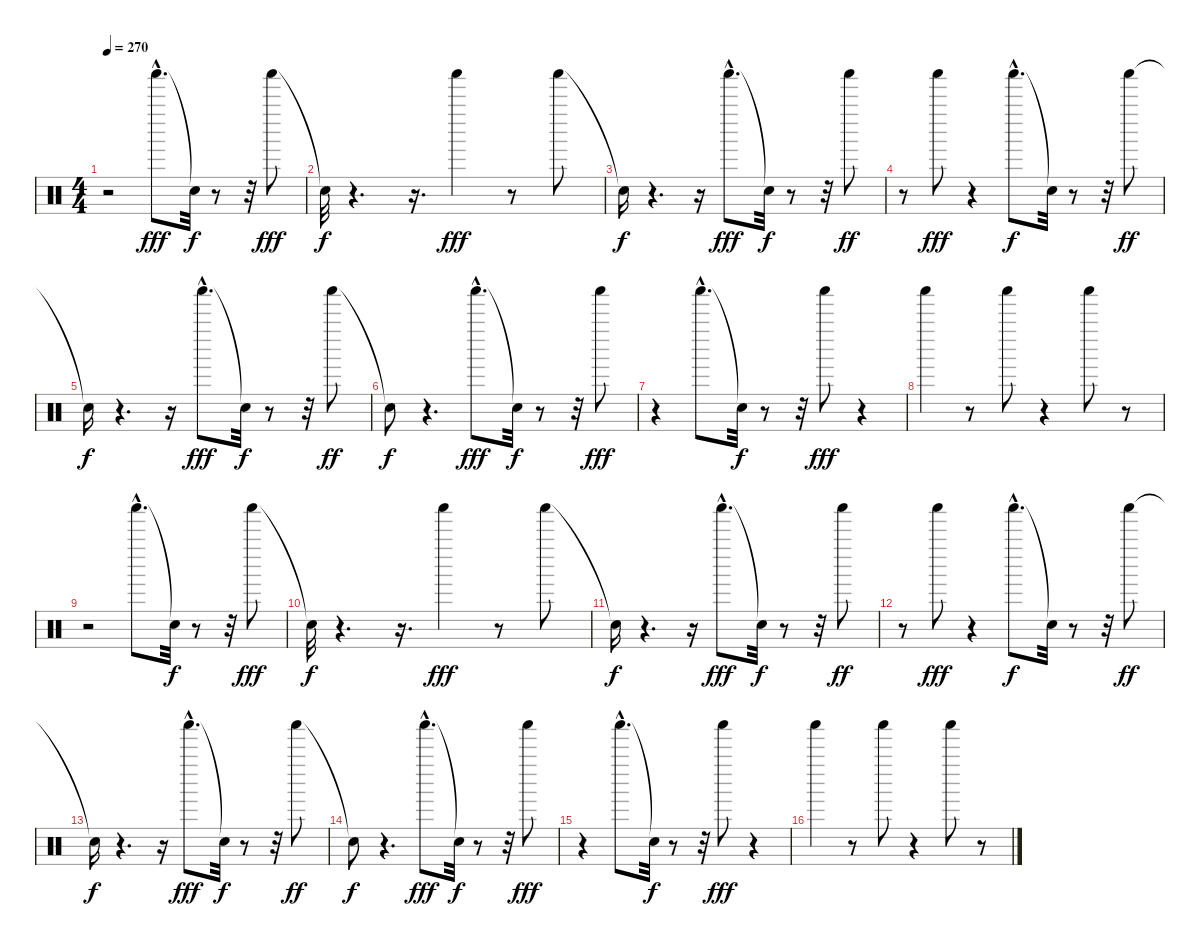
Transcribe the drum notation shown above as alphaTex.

\track "" {instrument percussion}
\staff {score}
\articulation defaults
\ts (4 4)
\tempo 270
\clef neutral
\ks c
r.2{dy fff} "Shaker (hit)"{hac}.8{d} "Snare (hit)"{t}.32{dy f} r.8 r.32 "Shaker (hit)".8{dy fff} |
"Snare (hit)"{t}.32{dy f} r.4{d} r.16{d} "Shaker (hit)".4{dy fff} r.8 "Shaker (hit)".8 |
"Snare (hit)"{t}.16{dy f} r.4{d} r.16 "Shaker (hit)"{hac}.8{d dy fff} "Snare (hit)"{t}.32{dy f} r.8 r.32 "Shaker (hit)".8{dy ff} |
r.8 "Shaker (hit)".8{dy fff} r.4 "Shaker (hit)"{hac}.8{d dy f} "Snare (hit)"{t}.32 r.8 r.32 "Shaker (hit)".8{dy ff} |
"Snare (hit)"{t}.16{dy f} r.4{d} r.16 "Shaker (hit)"{hac}.8{d dy fff} "Snare (hit)"{t}.32{dy f} r.8 r.32 "Shaker (hit)".8{dy ff} |
"Snare (hit)"{t}.8{dy f} r.4{d} "Shaker (hit)"{hac}.8{d dy fff} "Snare (hit)"{t}.32{dy f} r.8 r.32 "Shaker (hit)".8{dy fff} |
r.4 "Shaker (hit)"{hac}.8{d} "Snare (hit)"{t}.32{dy f} r.8 r.32 "Shaker (hit)".8{dy fff} r.4 |
"Shaker (hit)".4 r.8 "Shaker (hit)".8 r.4 "Shaker (hit)".8 r.8 |
r.2 "Shaker (hit)"{hac}.8{d} "Snare (hit)"{t}.32{dy f} r.8 r.32 "Shaker (hit)".8{dy fff} |
"Snare (hit)"{t}.32{dy f} r.4{d} r.16{d} "Shaker (hit)".4{dy fff} r.8 "Shaker (hit)".8 |
"Snare (hit)"{t}.16{dy f} r.4{d} r.16 "Shaker (hit)"{hac}.8{d dy fff} "Snare (hit)"{t}.32{dy f} r.8 r.32 "Shaker (hit)".8{dy ff} |
r.8 "Shaker (hit)".8{dy fff} r.4 "Shaker (hit)"{hac}.8{d dy f} "Snare (hit)"{t}.32 r.8 r.32 "Shaker (hit)".8{dy ff} |
"Snare (hit)"{t}.16{dy f} r.4{d} r.16 "Shaker (hit)"{hac}.8{d dy fff} "Snare (hit)"{t}.32{dy f} r.8 r.32 "Shaker (hit)".8{dy ff} |
"Snare (hit)"{t}.8{dy f} r.4{d} "Shaker (hit)"{hac}.8{d dy fff} "Snare (hit)"{t}.32{dy f} r.8 r.32 "Shaker (hit)".8{dy fff} |
r.4 "Shaker (hit)"{hac}.8{d} "Snare (hit)"{t}.32{dy f} r.8 r.32 "Shaker (hit)".8{dy fff} r.4 |
"Shaker (hit)".4 r.8 "Shaker (hit)".8 r.4 "Shaker (hit)".8 r.8
